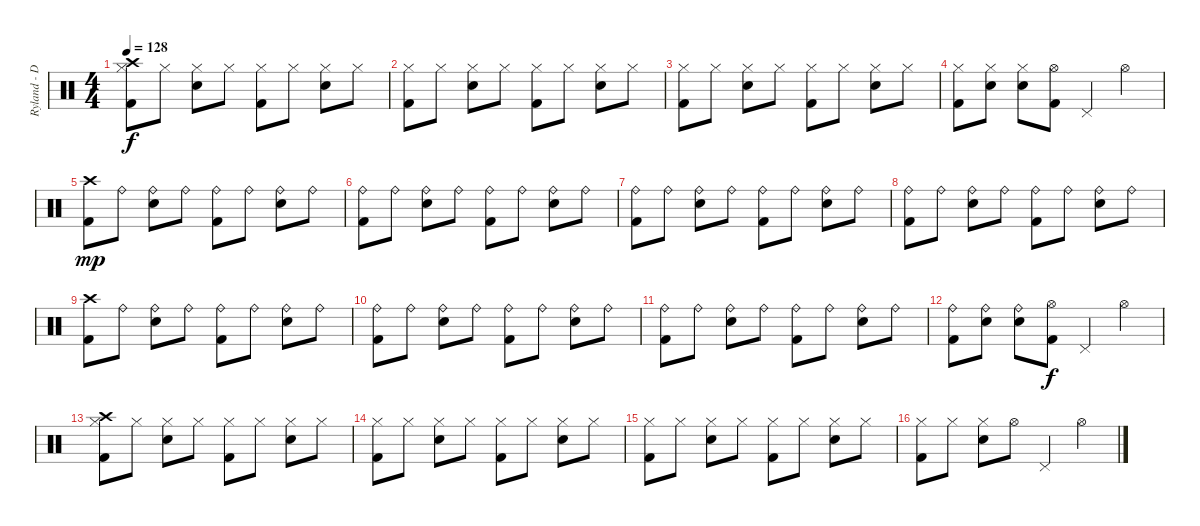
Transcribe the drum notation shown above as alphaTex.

\track ("Ryland - Drums" "Ryland - D") {instrument percussion}
\staff {score}
\articulation defaults
\ts (4 4)
\tempo 128
\clef neutral
\ks c
("Hi-Hat (closed)" "Crash high (hit)" "Kick (hit) 2").8{dy f} "Hi-Hat (closed)".8 ("Hi-Hat (closed)" "Electric Snare (hit)").8 "Hi-Hat (closed)".8 ("Hi-Hat (closed)" "Kick (hit) 2").8 "Hi-Hat (closed)".8 ("Hi-Hat (closed)" "Electric Snare (hit)").8 "Hi-Hat (closed)".8 |
("Hi-Hat (closed)" "Kick (hit) 2").8 "Hi-Hat (closed)".8 ("Hi-Hat (closed)" "Electric Snare (hit)").8 "Hi-Hat (closed)".8 ("Hi-Hat (closed)" "Kick (hit) 2").8 "Hi-Hat (closed)".8 ("Hi-Hat (closed)" "Electric Snare (hit)").8 "Hi-Hat (closed)".8 |
("Hi-Hat (closed)" "Kick (hit) 2").8 "Hi-Hat (closed)".8 ("Hi-Hat (closed)" "Electric Snare (hit)").8 "Hi-Hat (closed)".8 ("Hi-Hat (closed)" "Kick (hit) 2").8 "Hi-Hat (closed)".8 ("Hi-Hat (closed)" "Electric Snare (hit)").8 "Hi-Hat (closed)".8 |
("Hi-Hat (closed)" "Kick (hit) 2").8 ("Hi-Hat (closed)" "Electric Snare (hit)").8 ("Hi-Hat (closed)" "Electric Snare (hit)").8 ("Hi-Hat (open)" "Kick (hit) 2").8 "Pedal Hi-Hat (hit)".4 "Hi-Hat (open)".4 |
("Crash high (hit)" "Kick (hit) 2").8{dy mp} "Ride (bell)".8 ("Ride (bell)" "Electric Snare (hit)").8 "Ride (bell)".8 ("Ride (bell)" "Kick (hit) 2").8 "Ride (bell)".8 ("Ride (bell)" "Electric Snare (hit)").8 "Ride (bell)".8 |
("Ride (bell)" "Kick (hit) 2").8 "Ride (bell)".8 ("Ride (bell)" "Electric Snare (hit)").8 "Ride (bell)".8 ("Ride (bell)" "Kick (hit) 2").8 "Ride (bell)".8 ("Ride (bell)" "Electric Snare (hit)").8 "Ride (bell)".8 |
("Ride (bell)" "Kick (hit) 2").8 "Ride (bell)".8 ("Ride (bell)" "Electric Snare (hit)").8 "Ride (bell)".8 ("Ride (bell)" "Kick (hit) 2").8 "Ride (bell)".8 ("Ride (bell)" "Electric Snare (hit)").8 "Ride (bell)".8 |
("Ride (bell)" "Kick (hit) 2").8 "Ride (bell)".8 ("Ride (bell)" "Electric Snare (hit)").8 "Ride (bell)".8 ("Ride (bell)" "Kick (hit) 2").8 "Ride (bell)".8 ("Ride (bell)" "Electric Snare (hit)").8 "Ride (bell)".8 |
("Crash high (hit)" "Kick (hit) 2").8 "Ride (bell)".8 ("Ride (bell)" "Electric Snare (hit)").8 "Ride (bell)".8 ("Ride (bell)" "Kick (hit) 2").8 "Ride (bell)".8 ("Ride (bell)" "Electric Snare (hit)").8 "Ride (bell)".8 |
("Ride (bell)" "Kick (hit) 2").8 "Ride (bell)".8 ("Ride (bell)" "Electric Snare (hit)").8 "Ride (bell)".8 ("Ride (bell)" "Kick (hit) 2").8 "Ride (bell)".8 ("Ride (bell)" "Electric Snare (hit)").8 "Ride (bell)".8 |
("Ride (bell)" "Kick (hit) 2").8 "Ride (bell)".8 ("Ride (bell)" "Electric Snare (hit)").8 "Ride (bell)".8 ("Ride (bell)" "Kick (hit) 2").8 "Ride (bell)".8 ("Ride (bell)" "Electric Snare (hit)").8 "Ride (bell)".8 |
("Ride (bell)" "Kick (hit) 2").8 ("Ride (bell)" "Electric Snare (hit)").8 ("Ride (bell)" "Electric Snare (hit)").8 ("Hi-Hat (open)" "Kick (hit) 2").8{dy f} "Pedal Hi-Hat (hit)".4 "Hi-Hat (open)".4 |
("Hi-Hat (closed)" "Crash high (hit)" "Kick (hit) 2").8 "Hi-Hat (closed)".8 ("Hi-Hat (closed)" "Electric Snare (hit)").8 "Hi-Hat (closed)".8 ("Hi-Hat (closed)" "Kick (hit) 2").8 "Hi-Hat (closed)".8 ("Hi-Hat (closed)" "Electric Snare (hit)").8 "Hi-Hat (closed)".8 |
("Hi-Hat (closed)" "Kick (hit) 2").8 "Hi-Hat (closed)".8 ("Hi-Hat (closed)" "Electric Snare (hit)").8 "Hi-Hat (closed)".8 ("Hi-Hat (closed)" "Kick (hit) 2").8 "Hi-Hat (closed)".8 ("Hi-Hat (closed)" "Electric Snare (hit)").8 "Hi-Hat (closed)".8 |
("Hi-Hat (closed)" "Kick (hit) 2").8 "Hi-Hat (closed)".8 ("Hi-Hat (closed)" "Electric Snare (hit)").8 "Hi-Hat (closed)".8 ("Hi-Hat (closed)" "Kick (hit) 2").8 "Hi-Hat (closed)".8 ("Hi-Hat (closed)" "Electric Snare (hit)").8 "Hi-Hat (closed)".8 |
("Hi-Hat (closed)" "Kick (hit) 2").8 "Hi-Hat (closed)".8 ("Hi-Hat (closed)" "Electric Snare (hit)").8 "Hi-Hat (open)".8 "Pedal Hi-Hat (hit)".4 "Hi-Hat (open)".4
